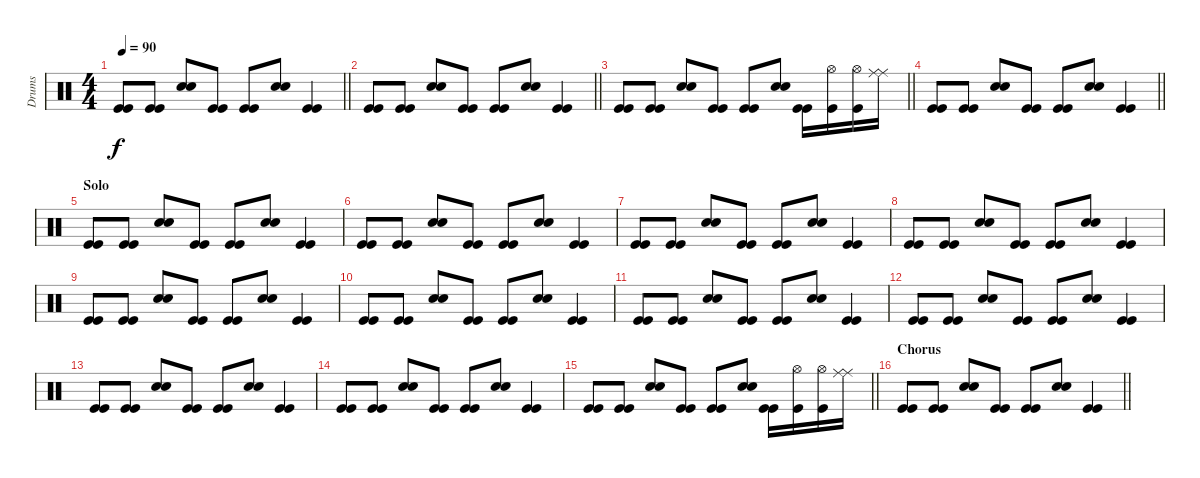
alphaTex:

\track ("Drums" "Drums") {instrument percussion}
\staff {score}
\articulation defaults
\ts (4 4)
\tempo 90
\clef neutral
\barLineRight lightlight
\ks c
("Kick (hit)" "Kick (hit)").8{dy f} ("Kick (hit)" "Kick (hit)").8 ("Electric Snare (hit)" "Electric Snare (hit)").8 ("Kick (hit)" "Kick (hit)").8 ("Kick (hit)" "Kick (hit)").8 ("Electric Snare (hit)" "Electric Snare (hit)").8 ("Kick (hit)" "Kick (hit)").4 |
\barLineRight lightlight
("Kick (hit)" "Kick (hit)").8 ("Kick (hit)" "Kick (hit)").8 ("Electric Snare (hit)" "Electric Snare (hit)").8 ("Kick (hit)" "Kick (hit)").8 ("Kick (hit)" "Kick (hit)").8 ("Electric Snare (hit)" "Electric Snare (hit)").8 ("Kick (hit)" "Kick (hit)").4 |
\barLineRight lightlight
("Kick (hit)" "Kick (hit)").8 ("Kick (hit)" "Kick (hit)").8 ("Electric Snare (hit)" "Electric Snare (hit)").8 ("Kick (hit)" "Kick (hit)").8 ("Kick (hit)" "Kick (hit)").8 ("Electric Snare (hit)" "Electric Snare (hit)").8 ("Kick (hit)" "Kick (hit)").16 ("Hi-Hat (open)" "Kick (hit)").16 ("Hi-Hat (open)" "Kick (hit)").16 ("Ride (middle)" "Ride (middle)").16 |
\barLineRight lightlight
("Kick (hit)" "Kick (hit)").8 ("Kick (hit)" "Kick (hit)").8 ("Electric Snare (hit)" "Electric Snare (hit)").8 ("Kick (hit)" "Kick (hit)").8 ("Kick (hit)" "Kick (hit)").8 ("Electric Snare (hit)" "Electric Snare (hit)").8 ("Kick (hit)" "Kick (hit)").4 |
\section ("" "Solo")
("Kick (hit)" "Kick (hit)").8 ("Kick (hit)" "Kick (hit)").8 ("Electric Snare (hit)" "Electric Snare (hit)").8 ("Kick (hit)" "Kick (hit)").8 ("Kick (hit)" "Kick (hit)").8 ("Electric Snare (hit)" "Electric Snare (hit)").8 ("Kick (hit)" "Kick (hit)").4 |
("Kick (hit)" "Kick (hit)").8 ("Kick (hit)" "Kick (hit)").8 ("Electric Snare (hit)" "Electric Snare (hit)").8 ("Kick (hit)" "Kick (hit)").8 ("Kick (hit)" "Kick (hit)").8 ("Electric Snare (hit)" "Electric Snare (hit)").8 ("Kick (hit)" "Kick (hit)").4 |
("Kick (hit)" "Kick (hit)").8 ("Kick (hit)" "Kick (hit)").8 ("Electric Snare (hit)" "Electric Snare (hit)").8 ("Kick (hit)" "Kick (hit)").8 ("Kick (hit)" "Kick (hit)").8 ("Electric Snare (hit)" "Electric Snare (hit)").8 ("Kick (hit)" "Kick (hit)").4 |
("Kick (hit)" "Kick (hit)").8 ("Kick (hit)" "Kick (hit)").8 ("Electric Snare (hit)" "Electric Snare (hit)").8 ("Kick (hit)" "Kick (hit)").8 ("Kick (hit)" "Kick (hit)").8 ("Electric Snare (hit)" "Electric Snare (hit)").8 ("Kick (hit)" "Kick (hit)").4 |
("Kick (hit)" "Kick (hit)").8 ("Kick (hit)" "Kick (hit)").8 ("Electric Snare (hit)" "Electric Snare (hit)").8 ("Kick (hit)" "Kick (hit)").8 ("Kick (hit)" "Kick (hit)").8 ("Electric Snare (hit)" "Electric Snare (hit)").8 ("Kick (hit)" "Kick (hit)").4 |
("Kick (hit)" "Kick (hit)").8 ("Kick (hit)" "Kick (hit)").8 ("Electric Snare (hit)" "Electric Snare (hit)").8 ("Kick (hit)" "Kick (hit)").8 ("Kick (hit)" "Kick (hit)").8 ("Electric Snare (hit)" "Electric Snare (hit)").8 ("Kick (hit)" "Kick (hit)").4 |
("Kick (hit)" "Kick (hit)").8 ("Kick (hit)" "Kick (hit)").8 ("Electric Snare (hit)" "Electric Snare (hit)").8 ("Kick (hit)" "Kick (hit)").8 ("Kick (hit)" "Kick (hit)").8 ("Electric Snare (hit)" "Electric Snare (hit)").8 ("Kick (hit)" "Kick (hit)").4 |
("Kick (hit)" "Kick (hit)").8 ("Kick (hit)" "Kick (hit)").8 ("Electric Snare (hit)" "Electric Snare (hit)").8 ("Kick (hit)" "Kick (hit)").8 ("Kick (hit)" "Kick (hit)").8 ("Electric Snare (hit)" "Electric Snare (hit)").8 ("Kick (hit)" "Kick (hit)").4 |
("Kick (hit)" "Kick (hit)").8 ("Kick (hit)" "Kick (hit)").8 ("Electric Snare (hit)" "Electric Snare (hit)").8 ("Kick (hit)" "Kick (hit)").8 ("Kick (hit)" "Kick (hit)").8 ("Electric Snare (hit)" "Electric Snare (hit)").8 ("Kick (hit)" "Kick (hit)").4 |
("Kick (hit)" "Kick (hit)").8 ("Kick (hit)" "Kick (hit)").8 ("Electric Snare (hit)" "Electric Snare (hit)").8 ("Kick (hit)" "Kick (hit)").8 ("Kick (hit)" "Kick (hit)").8 ("Electric Snare (hit)" "Electric Snare (hit)").8 ("Kick (hit)" "Kick (hit)").4 |
\barLineRight lightlight
("Kick (hit)" "Kick (hit)").8 ("Kick (hit)" "Kick (hit)").8 ("Electric Snare (hit)" "Electric Snare (hit)").8 ("Kick (hit)" "Kick (hit)").8 ("Kick (hit)" "Kick (hit)").8 ("Electric Snare (hit)" "Electric Snare (hit)").8 ("Kick (hit)" "Kick (hit)").16 ("Hi-Hat (open)" "Kick (hit)").16 ("Hi-Hat (open)" "Kick (hit)").16 ("Ride (middle)" "Ride (middle)").16 |
\section ("" "Chorus")
\barLineRight lightlight
("Kick (hit)" "Kick (hit)").8 ("Kick (hit)" "Kick (hit)").8 ("Electric Snare (hit)" "Electric Snare (hit)").8 ("Kick (hit)" "Kick (hit)").8 ("Kick (hit)" "Kick (hit)").8 ("Electric Snare (hit)" "Electric Snare (hit)").8 ("Kick (hit)" "Kick (hit)").4
